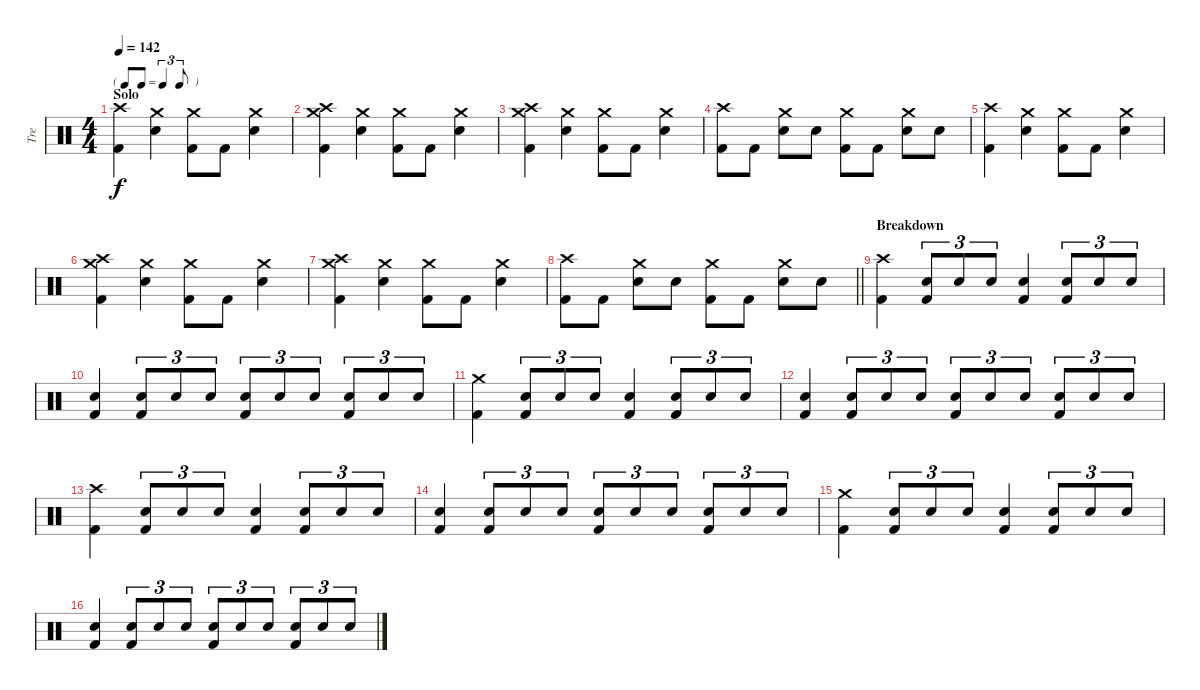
\track ("Tre" "Tre") {instrument percussion}
\staff {score}
\articulation defaults
\ts (4 4)
\tf triplet8th
\section ("" "Solo")
\tempo 142
\clef neutral
\ks c
("Crash high (hit)" "Kick (hit) 2").4{dy f} ("Crash medium (hit)" "Snare (hit) 2").4 ("Crash medium (hit)" "Kick (hit) 2").8 "Kick (hit) 2".8 ("Crash medium (hit)" "Snare (hit) 2").4 |
("Crash medium (hit)" "Crash high (hit)" "Kick (hit) 2").4 ("Crash medium (hit)" "Snare (hit) 2").4 ("Crash medium (hit)" "Kick (hit) 2").8 "Kick (hit) 2".8 ("Crash medium (hit)" "Snare (hit) 2").4 |
("Crash medium (hit)" "Crash high (hit)" "Kick (hit) 2").4 ("Crash medium (hit)" "Snare (hit) 2").4 ("Crash medium (hit)" "Kick (hit) 2").8 "Kick (hit) 2".8 ("Crash medium (hit)" "Snare (hit) 2").4 |
("Crash high (hit)" "Kick (hit) 2").8 "Kick (hit) 2".8 ("Crash medium (hit)" "Snare (hit) 2").8 "Snare (hit) 2".8 ("Crash medium (hit)" "Kick (hit) 2").8 "Kick (hit) 2".8 ("Crash medium (hit)" "Snare (hit) 2").8 "Snare (hit) 2".8 |
("Crash high (hit)" "Kick (hit) 2").4 ("Crash medium (hit)" "Snare (hit) 2").4 ("Crash medium (hit)" "Kick (hit) 2").8 "Kick (hit) 2".8 ("Crash medium (hit)" "Snare (hit) 2").4 |
("Crash medium (hit)" "Crash high (hit)" "Kick (hit) 2").4 ("Crash medium (hit)" "Snare (hit) 2").4 ("Crash medium (hit)" "Kick (hit) 2").8 "Kick (hit) 2".8 ("Crash medium (hit)" "Snare (hit) 2").4 |
("Crash medium (hit)" "Crash high (hit)" "Kick (hit) 2").4 ("Crash medium (hit)" "Snare (hit) 2").4 ("Crash medium (hit)" "Kick (hit) 2").8 "Kick (hit) 2".8 ("Crash medium (hit)" "Snare (hit) 2").4 |
\barLineRight lightlight
("Crash high (hit)" "Kick (hit) 2").8 "Kick (hit) 2".8 ("Crash medium (hit)" "Snare (hit) 2").8 "Snare (hit) 2".8 ("Crash medium (hit)" "Kick (hit) 2").8 "Kick (hit) 2".8 ("Crash medium (hit)" "Snare (hit) 2").8 "Snare (hit) 2".8 |
\section ("" "Breakdown")
("Crash high (hit)" "Kick (hit) 2").4 ("Snare (hit) 2" "Kick (hit) 2").8{tu (3 2)} "Snare (hit) 2".8{tu (3 2)} "Snare (hit) 2".8{tu (3 2)} ("Snare (hit) 2" "Kick (hit) 2").4 ("Snare (hit) 2" "Kick (hit) 2").8{tu (3 2)} "Snare (hit) 2".8{tu (3 2)} "Snare (hit) 2".8{tu (3 2)} |
("Snare (hit) 2" "Kick (hit) 2").4 ("Snare (hit) 2" "Kick (hit) 2").8{tu (3 2)} "Snare (hit) 2".8{tu (3 2)} "Snare (hit) 2".8{tu (3 2)} ("Snare (hit) 2" "Kick (hit) 2").8{tu (3 2)} "Snare (hit) 2".8{tu (3 2)} "Snare (hit) 2".8{tu (3 2)} ("Snare (hit) 2" "Kick (hit) 2").8{tu (3 2)} "Snare (hit) 2".8{tu (3 2)} "Snare (hit) 2".8{tu (3 2)} |
("Crash medium (hit)" "Kick (hit) 2").4 ("Snare (hit) 2" "Kick (hit) 2").8{tu (3 2)} "Snare (hit) 2".8{tu (3 2)} "Snare (hit) 2".8{tu (3 2)} ("Snare (hit) 2" "Kick (hit) 2").4 ("Snare (hit) 2" "Kick (hit) 2").8{tu (3 2)} "Snare (hit) 2".8{tu (3 2)} "Snare (hit) 2".8{tu (3 2)} |
("Snare (hit) 2" "Kick (hit) 2").4 ("Snare (hit) 2" "Kick (hit) 2").8{tu (3 2)} "Snare (hit) 2".8{tu (3 2)} "Snare (hit) 2".8{tu (3 2)} ("Snare (hit) 2" "Kick (hit) 2").8{tu (3 2)} "Snare (hit) 2".8{tu (3 2)} "Snare (hit) 2".8{tu (3 2)} ("Snare (hit) 2" "Kick (hit) 2").8{tu (3 2)} "Snare (hit) 2".8{tu (3 2)} "Snare (hit) 2".8{tu (3 2)} |
("Crash high (hit)" "Kick (hit) 2").4 ("Snare (hit) 2" "Kick (hit) 2").8{tu (3 2)} "Snare (hit) 2".8{tu (3 2)} "Snare (hit) 2".8{tu (3 2)} ("Snare (hit) 2" "Kick (hit) 2").4 ("Snare (hit) 2" "Kick (hit) 2").8{tu (3 2)} "Snare (hit) 2".8{tu (3 2)} "Snare (hit) 2".8{tu (3 2)} |
("Snare (hit) 2" "Kick (hit) 2").4 ("Snare (hit) 2" "Kick (hit) 2").8{tu (3 2)} "Snare (hit) 2".8{tu (3 2)} "Snare (hit) 2".8{tu (3 2)} ("Snare (hit) 2" "Kick (hit) 2").8{tu (3 2)} "Snare (hit) 2".8{tu (3 2)} "Snare (hit) 2".8{tu (3 2)} ("Snare (hit) 2" "Kick (hit) 2").8{tu (3 2)} "Snare (hit) 2".8{tu (3 2)} "Snare (hit) 2".8{tu (3 2)} |
("Crash medium (hit)" "Kick (hit) 2").4 ("Snare (hit) 2" "Kick (hit) 2").8{tu (3 2)} "Snare (hit) 2".8{tu (3 2)} "Snare (hit) 2".8{tu (3 2)} ("Snare (hit) 2" "Kick (hit) 2").4 ("Snare (hit) 2" "Kick (hit) 2").8{tu (3 2)} "Snare (hit) 2".8{tu (3 2)} "Snare (hit) 2".8{tu (3 2)} |
("Snare (hit) 2" "Kick (hit) 2").4 ("Snare (hit) 2" "Kick (hit) 2").8{tu (3 2)} "Snare (hit) 2".8{tu (3 2)} "Snare (hit) 2".8{tu (3 2)} ("Snare (hit) 2" "Kick (hit) 2").8{tu (3 2)} "Snare (hit) 2".8{tu (3 2)} "Snare (hit) 2".8{tu (3 2)} ("Snare (hit) 2" "Kick (hit) 2").8{tu (3 2)} "Snare (hit) 2".8{tu (3 2)} "Snare (hit) 2".8{tu (3 2)}
